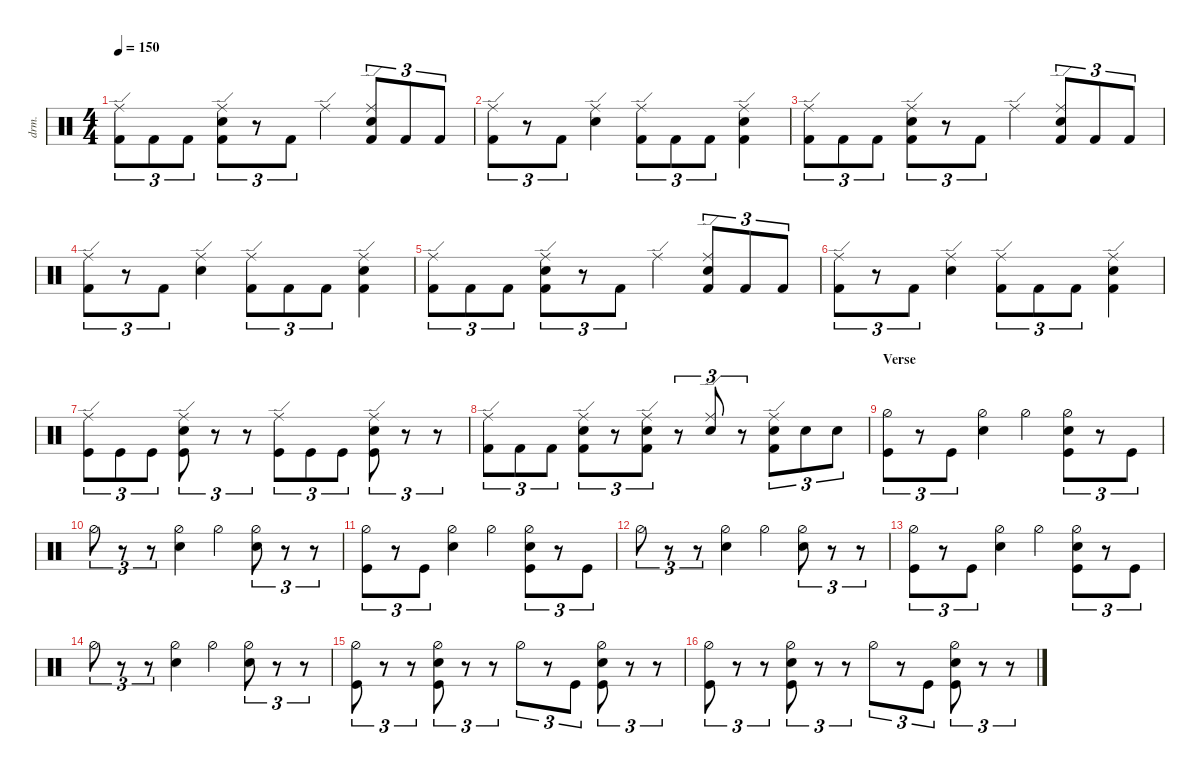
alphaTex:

\defaultSystemsLayout 4
\hideDynamics
\bracketExtendMode nobrackets
\otherSystemsTrackNameOrientation horizontal
\track ("Drumkit" "drm.") {solo instrument percussion}
\staff {score}
\articulation defaults
\ts (4 4)
\scale
1.06666
\tempo 150
\accidentals auto
\clef neutral
\ottava regular
\simile none
\ks aminor
("Kick (hit) 2" "Ride (edge)").8{tu (3 2) dy mf beam Down} "Kick (hit) 2".8{tu (3 2) beam Down} "Kick (hit) 2".8{tu (3 2) beam Down} ("Kick (hit) 2" "Ride (edge)" "Snare (hit) 2").8{tu (3 2) beam Down} r.8{tu (3 2) beam Down} "Kick (hit) 2".8{tu (3 2) beam Down} "Ride (edge)".4{beam Down} ("Kick (hit) 2" "Ride (edge)" "Snare (hit) 2").8{tu (3 2) beam Up} "Kick (hit) 2".8{tu (3 2) beam Up} "Kick (hit) 2".8{tu (3 2) beam Up} |
\scale
0.977779 ("Kick (hit) 2" "Ride (edge)").8{tu (3 2) beam Down} r.8{tu (3 2) beam Down} "Kick (hit) 2".8{tu (3 2) beam Down} ("Ride (edge)" "Snare (hit) 2").4{beam Down} ("Kick (hit) 2" "Ride (edge)").8{tu (3 2) beam Down} "Kick (hit) 2".8{tu (3 2) beam Down} "Kick (hit) 2".8{tu (3 2) beam Down} ("Ride (edge)" "Snare (hit) 2" "Kick (hit) 2").4{beam Down} |
\scale
0.977779 ("Kick (hit) 2" "Ride (edge)").8{tu (3 2) beam Down} "Kick (hit) 2".8{tu (3 2) beam Down} "Kick (hit) 2".8{tu (3 2) beam Down} ("Kick (hit) 2" "Ride (edge)" "Snare (hit) 2").8{tu (3 2) beam Down} r.8{tu (3 2) beam Down} "Kick (hit) 2".8{tu (3 2) beam Down} "Ride (edge)".4{beam Down} ("Kick (hit) 2" "Ride (edge)" "Snare (hit) 2").8{tu (3 2) beam Up} "Kick (hit) 2".8{tu (3 2) beam Up} "Kick (hit) 2".8{tu (3 2) beam Up} |
\scale
0.977779 ("Kick (hit) 2" "Ride (edge)").8{tu (3 2) beam Down} r.8{tu (3 2) beam Down} "Kick (hit) 2".8{tu (3 2) beam Down} ("Ride (edge)" "Snare (hit) 2").4{beam Down} ("Kick (hit) 2" "Ride (edge)").8{tu (3 2) beam Down} "Kick (hit) 2".8{tu (3 2) beam Down} "Kick (hit) 2".8{tu (3 2) beam Down} ("Ride (edge)" "Snare (hit) 2" "Kick (hit) 2").4{beam Down} |
\scale
1.06224 ("Kick (hit) 2" "Ride (edge)").8{tu (3 2) beam Down} "Kick (hit) 2".8{tu (3 2) beam Down} "Kick (hit) 2".8{tu (3 2) beam Down} ("Kick (hit) 2" "Ride (edge)" "Snare (hit) 2").8{tu (3 2) beam Down} r.8{tu (3 2) beam Down} "Kick (hit) 2".8{tu (3 2) beam Down} "Ride (edge)".4{beam Down} ("Kick (hit) 2" "Ride (edge)" "Snare (hit) 2").8{tu (3 2) beam Up} "Kick (hit) 2".8{tu (3 2) beam Up} "Kick (hit) 2".8{tu (3 2) beam Up} |
\scale
0.973358 ("Kick (hit) 2" "Ride (edge)").8{tu (3 2) beam Down} r.8{tu (3 2) beam Down} "Kick (hit) 2".8{tu (3 2) beam Down} ("Ride (edge)" "Snare (hit) 2").4{beam Down} ("Kick (hit) 2" "Ride (edge)").8{tu (3 2) beam Down} "Kick (hit) 2".8{tu (3 2) beam Down} "Kick (hit) 2".8{tu (3 2) beam Down} ("Ride (edge)" "Snare (hit) 2" "Kick (hit) 2").4{beam Down} |
\scale
0.973358 ("Kick (hit)" "Ride (edge)").8{tu (3 2) beam Down} "Kick (hit)".8{tu (3 2) beam Down} "Kick (hit)".8{tu (3 2) beam Down} ("Kick (hit)" "Snare (hit) 2" "Ride (edge)").8{tu (3 2) beam Down} r.8{tu (3 2) beam Down} r.8{tu (3 2) beam Down} ("Kick (hit)" "Ride (edge)").8{tu (3 2) beam Down} "Kick (hit)".8{tu (3 2) beam Down} "Kick (hit)".8{tu (3 2) beam Down} ("Kick (hit)" "Snare (hit) 2" "Ride (edge)").8{tu (3 2) beam Down} r.8{tu (3 2) beam Down} r.8{tu (3 2) beam Down} |
\scale
0.991042 ("Kick (hit) 2" "Ride (edge)").8{tu (3 2) beam Down} "Kick (hit) 2".8{tu (3 2) beam Down} "Kick (hit) 2".8{tu (3 2) beam Down} ("Kick (hit) 2" "Snare (hit) 2" "Ride (edge)").8{tu (3 2) beam Down} r.8{tu (3 2) beam Down} ("Kick (hit) 2" "Snare (hit) 2" "Ride (edge)").8{tu (3 2) beam Down} r.8{tu (3 2) beam Up} ("Snare (hit) 2" "Ride (edge)").8{tu (3 2) beam Down} r.8{tu (3 2) beam Down} ("Snare (hit) 2" "Kick (hit) 2" "Ride (edge)").8{tu (3 2) beam Down} "Snare (hit) 2".8{tu (3 2) beam Down} "Snare (hit) 2".8{tu (3 2) beam Down} |
\section ("" "Verse")
\scale
1.06666 ("Kick (hit)" "Hi-Hat (half)").8{tu (3 2) beam Down} r.8{tu (3 2) beam Down} "Kick (hit)".8{tu (3 2) beam Down} ("Hi-Hat (half)" "Snare (hit) 2").4{beam Down} "Hi-Hat (half)".4{beam Down} ("Kick (hit)" "Hi-Hat (half)" "Snare (hit) 2").8{tu (3 2) beam Down} r.8{tu (3 2) beam Down} "Kick (hit)".8{tu (3 2) beam Down} |
\scale
0.977779 "Hi-Hat (half)".8{tu (3 2) beam Down} r.8{tu (3 2) beam Down} r.8{tu (3 2) beam Down} ("Hi-Hat (half)" "Snare (hit) 2").4{beam Down} "Hi-Hat (half)".4{beam Down} ("Hi-Hat (half)" "Snare (hit) 2").8{tu (3 2) beam Down} r.8{tu (3 2) beam Down} r.8{tu (3 2) beam Down} |
\scale
0.977779 ("Kick (hit)" "Hi-Hat (half)").8{tu (3 2) beam Down} r.8{tu (3 2) beam Down} "Kick (hit)".8{tu (3 2) beam Down} ("Hi-Hat (half)" "Snare (hit) 2").4{beam Down} "Hi-Hat (half)".4{beam Down} ("Kick (hit)" "Hi-Hat (half)" "Snare (hit) 2").8{tu (3 2) beam Down} r.8{tu (3 2) beam Down} "Kick (hit)".8{tu (3 2) beam Down} |
\scale
0.977779 "Hi-Hat (half)".8{tu (3 2) beam Down} r.8{tu (3 2) beam Down} r.8{tu (3 2) beam Down} ("Hi-Hat (half)" "Snare (hit) 2").4{beam Down} "Hi-Hat (half)".4{beam Down} ("Hi-Hat (half)" "Snare (hit) 2").8{tu (3 2) beam Down} r.8{tu (3 2) beam Down} r.8{tu (3 2) beam Down} |
\scale
1.06224 ("Kick (hit)" "Hi-Hat (half)").8{tu (3 2) beam Down} r.8{tu (3 2) beam Down} "Kick (hit)".8{tu (3 2) beam Down} ("Hi-Hat (half)" "Snare (hit) 2").4{beam Down} "Hi-Hat (half)".4{beam Down} ("Kick (hit)" "Hi-Hat (half)" "Snare (hit) 2").8{tu (3 2) beam Down} r.8{tu (3 2) beam Down} "Kick (hit)".8{tu (3 2) beam Down} |
\scale
0.973358 "Hi-Hat (half)".8{tu (3 2) beam Down} r.8{tu (3 2) beam Down} r.8{tu (3 2) beam Down} ("Hi-Hat (half)" "Snare (hit) 2").4{beam Down} "Hi-Hat (half)".4{beam Down} ("Hi-Hat (half)" "Snare (hit) 2").8{tu (3 2) beam Down} r.8{tu (3 2) beam Down} r.8{tu (3 2) beam Down} |
\scale
0.973358 ("Kick (hit)" "Hi-Hat (half)").8{tu (3 2) beam Down} r.8{tu (3 2) beam Down} r.8{tu (3 2) beam Down} ("Kick (hit)" "Hi-Hat (half)" "Snare (hit) 2").8{tu (3 2) beam Down} r.8{tu (3 2) beam Down} r.8{tu (3 2) beam Down} "Hi-Hat (half)".8{tu (3 2) beam Down} r.8{tu (3 2) beam Down} "Kick (hit)".8{tu (3 2) beam Down} ("Kick (hit)" "Hi-Hat (half)" "Snare (hit) 2").8{tu (3 2) beam Down} r.8{tu (3 2) beam Down} r.8{tu (3 2) beam Down} |
\scale
0.991042 ("Kick (hit)" "Hi-Hat (half)").8{tu (3 2) beam Down} r.8{tu (3 2) beam Down} r.8{tu (3 2) beam Down} ("Kick (hit)" "Hi-Hat (half)" "Snare (hit) 2").8{tu (3 2) beam Down} r.8{tu (3 2) beam Down} r.8{tu (3 2) beam Down} "Hi-Hat (half)".8{tu (3 2) beam Down} r.8{tu (3 2) beam Down} "Kick (hit)".8{tu (3 2) beam Down} ("Kick (hit)" "Hi-Hat (half)" "Snare (hit) 2").8{tu (3 2) beam Down} r.8{tu (3 2) beam Down} r.8{tu (3 2) beam Down}
